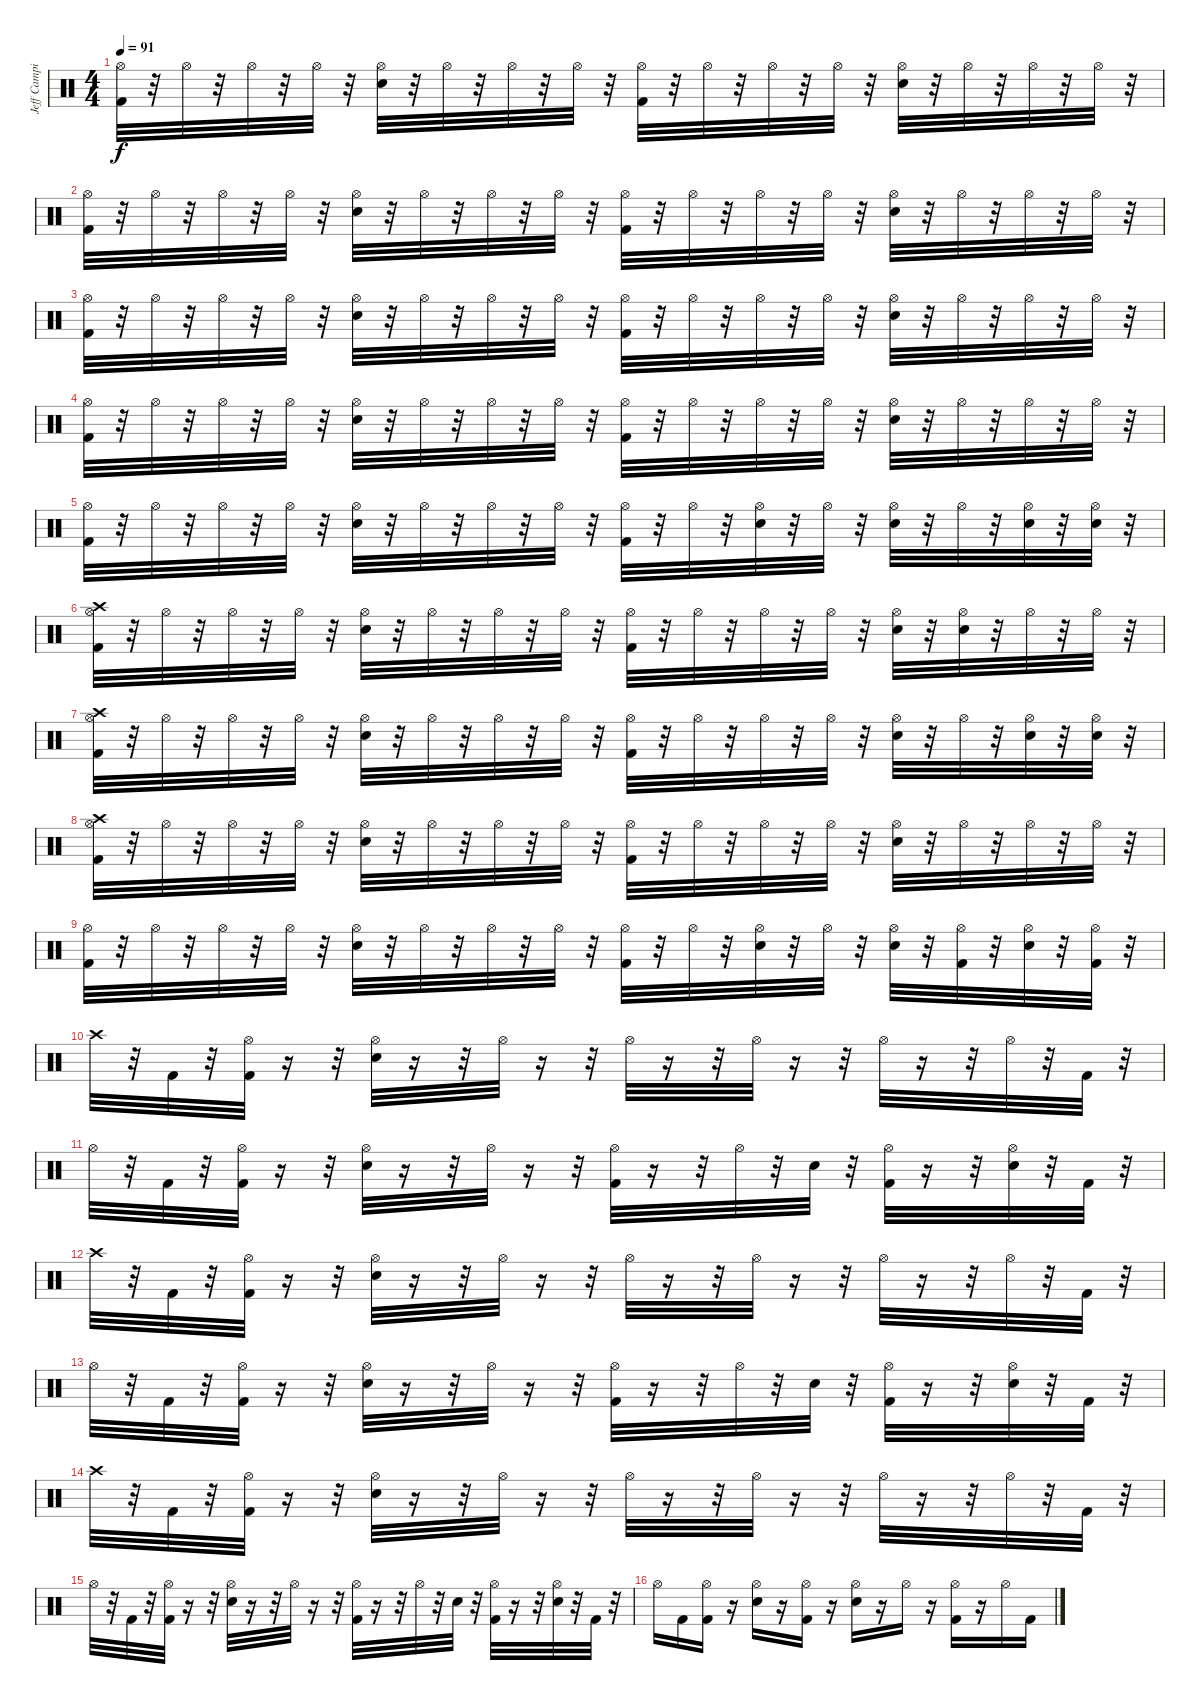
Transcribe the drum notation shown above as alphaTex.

\track ("Jeff Campitelli" "Jeff Campi") {instrument percussion}
\staff {score}
\articulation defaults
\ts (4 4)
\tempo 91
\clef neutral
\ks c
("Kick (hit) 2" "Hi-Hat (open)").32{dy f} r.32 "Hi-Hat (open)".32 r.32 "Hi-Hat (open)".32 r.32 "Hi-Hat (open)".32 r.32 ("Snare (hit) 2" "Hi-Hat (open)").32 r.32 "Hi-Hat (open)".32 r.32 "Hi-Hat (open)".32 r.32 "Hi-Hat (open)".32 r.32 ("Kick (hit) 2" "Hi-Hat (open)").32 r.32 "Hi-Hat (open)".32 r.32 "Hi-Hat (open)".32 r.32 "Hi-Hat (open)".32 r.32 ("Snare (hit) 2" "Hi-Hat (open)").32 r.32 "Hi-Hat (open)".32 r.32 "Hi-Hat (open)".32 r.32 "Hi-Hat (open)".32 r.32 |
("Kick (hit) 2" "Hi-Hat (open)").32 r.32 "Hi-Hat (open)".32 r.32 "Hi-Hat (open)".32 r.32 "Hi-Hat (open)".32 r.32 ("Snare (hit) 2" "Hi-Hat (open)").32 r.32 "Hi-Hat (open)".32 r.32 "Hi-Hat (open)".32 r.32 "Hi-Hat (open)".32 r.32 ("Kick (hit) 2" "Hi-Hat (open)").32 r.32 "Hi-Hat (open)".32 r.32 "Hi-Hat (open)".32 r.32 "Hi-Hat (open)".32 r.32 ("Snare (hit) 2" "Hi-Hat (open)").32 r.32 "Hi-Hat (open)".32 r.32 "Hi-Hat (open)".32 r.32 "Hi-Hat (open)".32 r.32 |
("Kick (hit) 2" "Hi-Hat (open)").32 r.32 "Hi-Hat (open)".32 r.32 "Hi-Hat (open)".32 r.32 "Hi-Hat (open)".32 r.32 ("Snare (hit) 2" "Hi-Hat (open)").32 r.32 "Hi-Hat (open)".32 r.32 "Hi-Hat (open)".32 r.32 "Hi-Hat (open)".32 r.32 ("Kick (hit) 2" "Hi-Hat (open)").32 r.32 "Hi-Hat (open)".32 r.32 "Hi-Hat (open)".32 r.32 "Hi-Hat (open)".32 r.32 ("Snare (hit) 2" "Hi-Hat (open)").32 r.32 "Hi-Hat (open)".32 r.32 "Hi-Hat (open)".32 r.32 "Hi-Hat (open)".32 r.32 |
("Kick (hit) 2" "Hi-Hat (open)").32 r.32 "Hi-Hat (open)".32 r.32 "Hi-Hat (open)".32 r.32 "Hi-Hat (open)".32 r.32 ("Snare (hit) 2" "Hi-Hat (open)").32 r.32 "Hi-Hat (open)".32 r.32 "Hi-Hat (open)".32 r.32 "Hi-Hat (open)".32 r.32 ("Kick (hit) 2" "Hi-Hat (open)").32 r.32 "Hi-Hat (open)".32 r.32 "Hi-Hat (open)".32 r.32 "Hi-Hat (open)".32 r.32 ("Snare (hit) 2" "Hi-Hat (open)").32 r.32 "Hi-Hat (open)".32 r.32 "Hi-Hat (open)".32 r.32 "Hi-Hat (open)".32 r.32 |
("Kick (hit) 2" "Hi-Hat (open)").32 r.32 "Hi-Hat (open)".32 r.32 "Hi-Hat (open)".32 r.32 "Hi-Hat (open)".32 r.32 ("Snare (hit) 2" "Hi-Hat (open)").32 r.32 "Hi-Hat (open)".32 r.32 "Hi-Hat (open)".32 r.32 "Hi-Hat (open)".32 r.32 ("Kick (hit) 2" "Hi-Hat (open)").32 r.32 "Hi-Hat (open)".32 r.32 ("Snare (hit) 2" "Hi-Hat (open)").32 r.32 "Hi-Hat (open)".32 r.32 ("Snare (hit) 2" "Hi-Hat (open)").32 r.32 "Hi-Hat (open)".32 r.32 ("Snare (hit) 2" "Hi-Hat (open)").32 r.32 ("Snare (hit) 2" "Hi-Hat (open)").32 r.32 |
("Crash high (hit)" "Kick (hit) 2" "Hi-Hat (open)").32 r.32 "Hi-Hat (open)".32 r.32 "Hi-Hat (open)".32 r.32 "Hi-Hat (open)".32 r.32 ("Snare (hit) 2" "Hi-Hat (open)").32 r.32 "Hi-Hat (open)".32 r.32 "Hi-Hat (open)".32 r.32 "Hi-Hat (open)".32 r.32 ("Kick (hit) 2" "Hi-Hat (open)").32 r.32 "Hi-Hat (open)".32 r.32 "Hi-Hat (open)".32 r.32 "Hi-Hat (open)".32 r.32 ("Snare (hit) 2" "Hi-Hat (open)").32 r.32 ("Snare (hit) 2" "Hi-Hat (open)").32 r.32 "Hi-Hat (open)".32 r.32 "Hi-Hat (open)".32 r.32 |
("Crash high (hit)" "Kick (hit) 2" "Hi-Hat (open)").32 r.32 "Hi-Hat (open)".32 r.32 "Hi-Hat (open)".32 r.32 "Hi-Hat (open)".32 r.32 ("Snare (hit) 2" "Hi-Hat (open)").32 r.32 "Hi-Hat (open)".32 r.32 "Hi-Hat (open)".32 r.32 "Hi-Hat (open)".32 r.32 ("Kick (hit) 2" "Hi-Hat (open)").32 r.32 "Hi-Hat (open)".32 r.32 "Hi-Hat (open)".32 r.32 "Hi-Hat (open)".32 r.32 ("Snare (hit) 2" "Hi-Hat (open)").32 r.32 "Hi-Hat (open)".32 r.32 ("Snare (hit) 2" "Hi-Hat (open)").32 r.32 ("Snare (hit) 2" "Hi-Hat (open)").32 r.32 |
("Crash high (hit)" "Kick (hit) 2" "Hi-Hat (open)").32 r.32 "Hi-Hat (open)".32 r.32 "Hi-Hat (open)".32 r.32 "Hi-Hat (open)".32 r.32 ("Snare (hit) 2" "Hi-Hat (open)").32 r.32 "Hi-Hat (open)".32 r.32 "Hi-Hat (open)".32 r.32 "Hi-Hat (open)".32 r.32 ("Kick (hit) 2" "Hi-Hat (open)").32 r.32 "Hi-Hat (open)".32 r.32 "Hi-Hat (open)".32 r.32 "Hi-Hat (open)".32 r.32 ("Snare (hit) 2" "Hi-Hat (open)").32 r.32 "Hi-Hat (open)".32 r.32 "Hi-Hat (open)".32 r.32 "Hi-Hat (open)".32 r.32 |
("Kick (hit) 2" "Hi-Hat (open)").32 r.32 "Hi-Hat (open)".32 r.32 "Hi-Hat (open)".32 r.32 "Hi-Hat (open)".32 r.32 ("Snare (hit) 2" "Hi-Hat (open)").32 r.32 "Hi-Hat (open)".32 r.32 "Hi-Hat (open)".32 r.32 "Hi-Hat (open)".32 r.32 ("Kick (hit) 2" "Hi-Hat (open)").32 r.32 "Hi-Hat (open)".32 r.32 ("Snare (hit) 2" "Hi-Hat (open)").32 r.32 "Hi-Hat (open)".32 r.32 ("Snare (hit) 2" "Hi-Hat (open)").32 r.32 ("Kick (hit) 2" "Hi-Hat (open)").32 r.32 ("Snare (hit) 2" "Hi-Hat (open)").32 r.32 ("Kick (hit) 2" "Hi-Hat (open)").32 r.32 |
"Crash high (hit)".32 r.32 "Kick (hit) 2".32 r.32 ("Hi-Hat (open)" "Kick (hit) 2").32 r.16 r.32 ("Hi-Hat (open)" "Snare (hit) 2").32 r.16 r.32 "Hi-Hat (open)".32 r.16 r.32 "Hi-Hat (open)".32 r.16 r.32 "Hi-Hat (open)".32 r.16 r.32 "Hi-Hat (open)".32 r.16 r.32 "Hi-Hat (open)".32 r.32 "Kick (hit) 2".32 r.32 |
"Hi-Hat (open)".32 r.32 "Kick (hit) 2".32 r.32 ("Hi-Hat (open)" "Kick (hit) 2").32 r.16 r.32 ("Hi-Hat (open)" "Snare (hit) 2").32 r.16 r.32 "Hi-Hat (open)".32 r.16 r.32 ("Kick (hit) 2" "Hi-Hat (open)").32 r.16 r.32 "Hi-Hat (open)".32 r.32 "Snare (hit) 2".32 r.32 ("Kick (hit) 2" "Hi-Hat (open)").32 r.16 r.32 ("Snare (hit) 2" "Hi-Hat (open)").32 r.32 "Kick (hit) 2".32 r.32 |
"Crash high (hit)".32 r.32 "Kick (hit) 2".32 r.32 ("Hi-Hat (open)" "Kick (hit) 2").32 r.16 r.32 ("Hi-Hat (open)" "Snare (hit) 2").32 r.16 r.32 "Hi-Hat (open)".32 r.16 r.32 "Hi-Hat (open)".32 r.16 r.32 "Hi-Hat (open)".32 r.16 r.32 "Hi-Hat (open)".32 r.16 r.32 "Hi-Hat (open)".32 r.32 "Kick (hit) 2".32 r.32 |
"Hi-Hat (open)".32 r.32 "Kick (hit) 2".32 r.32 ("Hi-Hat (open)" "Kick (hit) 2").32 r.16 r.32 ("Hi-Hat (open)" "Snare (hit) 2").32 r.16 r.32 "Hi-Hat (open)".32 r.16 r.32 ("Kick (hit) 2" "Hi-Hat (open)").32 r.16 r.32 "Hi-Hat (open)".32 r.32 "Snare (hit) 2".32 r.32 ("Kick (hit) 2" "Hi-Hat (open)").32 r.16 r.32 ("Snare (hit) 2" "Hi-Hat (open)").32 r.32 "Kick (hit) 2".32 r.32 |
"Crash high (hit)".32 r.32 "Kick (hit) 2".32 r.32 ("Hi-Hat (open)" "Kick (hit) 2").32 r.16 r.32 ("Hi-Hat (open)" "Snare (hit) 2").32 r.16 r.32 "Hi-Hat (open)".32 r.16 r.32 "Hi-Hat (open)".32 r.16 r.32 "Hi-Hat (open)".32 r.16 r.32 "Hi-Hat (open)".32 r.16 r.32 "Hi-Hat (open)".32 r.32 "Kick (hit) 2".32 r.32 |
"Hi-Hat (open)".32 r.32 "Kick (hit) 2".32 r.32 ("Hi-Hat (open)" "Kick (hit) 2").32 r.16 r.32 ("Hi-Hat (open)" "Snare (hit) 2").32 r.16 r.32 "Hi-Hat (open)".32 r.16 r.32 ("Kick (hit) 2" "Hi-Hat (open)").32 r.16 r.32 "Hi-Hat (open)".32 r.32 "Snare (hit) 2".32 r.32 ("Kick (hit) 2" "Hi-Hat (open)").32 r.16 r.32 ("Snare (hit) 2" "Hi-Hat (open)").32 r.32 "Kick (hit) 2".32 r.32 |
"Hi-Hat (open)".16 "Kick (hit) 2".16 ("Hi-Hat (open)" "Kick (hit) 2").16 r.16 ("Hi-Hat (open)" "Snare (hit) 2").16 r.16 ("Kick (hit) 2" "Hi-Hat (open)").16 r.16 ("Snare (hit) 2" "Hi-Hat (open)").16 r.16 "Hi-Hat (open)".16 r.16 ("Kick (hit) 2" "Hi-Hat (open)").16 r.16 "Hi-Hat (open)".16 "Kick (hit) 2".16
